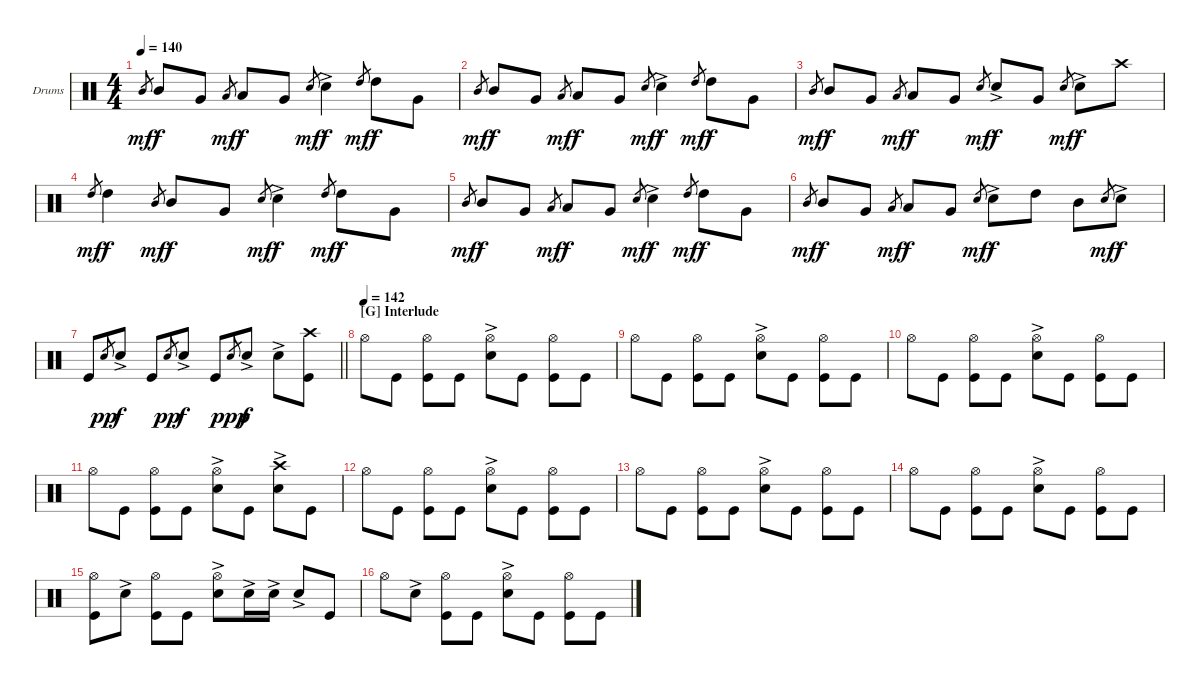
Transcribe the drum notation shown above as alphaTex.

\bracketExtendMode groupsimilarinstruments
\firstSystemTrackNameOrientation horizontal
\otherSystemsTrackNameOrientation horizontal
\track ("Drumkit" "Drums") {instrument percussion}
\staff {score}
\articulation defaults
\ts (4 4)
\tempo 140
\clef neutral
\ks c "Mid Tom (hit)".8{gr dy mf} "Mid Tom (hit)".8{dy f} "Very Low Tom (hit)".8 "Low Tom (hit)".8{gr dy mf} "Low Tom (hit)".8{dy f} "Very Low Tom (hit)".8 "Snare (hit) 2".8{gr dy mf} "Snare (hit) 2"{ac}.4{dy f} "High Tom (hit)".8{gr dy mf} "High Tom (hit)".8{dy f} "Very Low Tom (hit)".8
|
"Mid Tom (hit)".8{gr dy mf} "Mid Tom (hit)".8{dy f} "Very Low Tom (hit)".8 "Low Tom (hit)".8{gr dy mf} "Low Tom (hit)".8{dy f} "Very Low Tom (hit)".8 "Snare (hit) 2".8{gr dy mf} "Snare (hit) 2"{ac}.4{dy f} "High Tom (hit)".8{gr dy mf} "High Tom (hit)".8{dy f} "Very Low Tom (hit)".8 |
"Mid Tom (hit)".8{gr dy mf} "Mid Tom (hit)".8{dy f} "Very Low Tom (hit)".8 "Low Tom (hit)".8{gr dy mf} "Low Tom (hit)".8{dy f} "Very Low Tom (hit)".8 "Snare (hit) 2".8{gr dy mf} "Snare (hit) 2"{ac}.8{dy f} "Very Low Tom (hit)".8 "Snare (hit) 2".8{gr dy mf} "Snare (hit) 2"{ac}.8{dy f} "Crash high (hit)".8 |
"High Tom (hit)".8{gr dy mf} "High Tom (hit)".4{dy f} "Mid Tom (hit)".8{gr dy mf} "Mid Tom (hit)".8{dy f} "Very Low Tom (hit)".8 "Snare (hit) 2".8{gr dy mf} "Snare (hit) 2"{ac}.4{dy f} "High Tom (hit)".8{gr dy mf} "High Tom (hit)".8{dy f} "Very Low Tom (hit)".8 |
"Mid Tom (hit)".8{gr dy mf} "Mid Tom (hit)".8{dy f} "Very Low Tom (hit)".8 "Low Tom (hit)".8{gr dy mf} "Low Tom (hit)".8{dy f} "Very Low Tom (hit)".8 "Snare (hit) 2".8{gr dy mf} "Snare (hit) 2"{ac}.4{dy f} "High Tom (hit)".8{gr dy mf} "High Tom (hit)".8{dy f} "Very Low Tom (hit)".8 |
"Mid Tom (hit)".8{gr dy mf} "Mid Tom (hit)".8{dy f} "Very Low Tom (hit)".8 "Low Tom (hit)".8{gr dy mf} "Low Tom (hit)".8{dy f} "Very Low Tom (hit)".8 "Snare (hit) 2".8{gr dy mf} "Snare (hit) 2"{ac}.8{dy f} "High Tom (hit)".8 "Mid Tom (hit)".8 "Snare (hit) 2".8{gr dy mf} "Snare (hit) 2"{ac}.8{dy f} |
\barLineRight lightlight "Kick (hit)".8 "Snare (hit) 2".8{gr dy pp} "Snare (hit) 2"{ac}.8{dy f} "Kick (hit)".8 "Snare (hit) 2".8{gr dy pp} "Snare (hit) 2"{ac}.8{dy f} "Kick (hit)".8 "Snare (hit) 2".8{gr dy ppp} "Snare (hit) 2"{ac}.8{dy f} "Snare (hit) 2"{ac}.8
("Crash high (hit)" "Kick (hit)").8 |
\section ("G" "Interlude")
\tempo (142)
"Hi-Hat (open)".8 "Kick (hit)".8 ("Hi-Hat (open)" "Kick (hit)").8 "Kick (hit)".8 ("Hi-Hat (open)" "Snare (hit) 2"{ac}).8 "Kick (hit)".8 ("Hi-Hat (open)" "Kick (hit)").8 "Kick (hit)".8 |
"Hi-Hat (open)".8 "Kick (hit)".8 ("Hi-Hat (open)" "Kick (hit)").8 "Kick (hit)".8 ("Hi-Hat (open)" "Snare (hit) 2"{ac}).8 "Kick (hit)".8 ("Hi-Hat (open)" "Kick (hit)").8 "Kick (hit)".8 |
"Hi-Hat (open)".8 "Kick (hit)".8 ("Hi-Hat (open)" "Kick (hit)").8 "Kick (hit)".8 ("Hi-Hat (open)" "Snare (hit) 2"{ac}).8 "Kick (hit)".8 ("Hi-Hat (open)" "Kick (hit)").8 "Kick (hit)".8 |
"Hi-Hat (open)".8 "Kick (hit)".8 ("Hi-Hat (open)" "Kick (hit)").8 "Kick (hit)".8 ("Hi-Hat (open)" "Snare (hit) 2"{ac}).8 "Kick (hit)".8 ("Crash high (hit)" "Snare (hit) 2"{ac}).8 "Kick (hit)".8 |
"Hi-Hat (open)".8 "Kick (hit)".8 ("Hi-Hat (open)" "Kick (hit)").8 "Kick (hit)".8 ("Hi-Hat (open)" "Snare (hit) 2"{ac}).8 "Kick (hit)".8 ("Hi-Hat (open)" "Kick (hit)").8 "Kick (hit)".8 |
"Hi-Hat (open)".8 "Kick (hit)".8 ("Hi-Hat (open)" "Kick (hit)").8 "Kick (hit)".8 ("Hi-Hat (open)" "Snare (hit) 2"{ac}).8 "Kick (hit)".8 ("Hi-Hat (open)" "Kick (hit)").8 "Kick (hit)".8 |
"Hi-Hat (open)".8 "Kick (hit)".8 ("Hi-Hat (open)" "Kick (hit)").8 "Kick (hit)".8 ("Hi-Hat (open)" "Snare (hit) 2"{ac}).8 "Kick (hit)".8 ("Hi-Hat (open)" "Kick (hit)").8 "Kick (hit)".8 |
("Hi-Hat (open)" "Kick (hit)").8 "Snare (hit) 2"{ac}.8 ("Hi-Hat (open)" "Kick (hit)").8 "Kick (hit)".8 ("Hi-Hat (open)" "Snare (hit) 2"{ac}).8 "Snare (hit) 2"{ac}.16 "Snare (hit) 2"{ac}.16 "Snare (hit) 2"{ac}.8 "Kick (hit)".8 |
"Hi-Hat (open)".8 "Snare (hit) 2"{ac}.8 ("Hi-Hat (open)" "Kick (hit)").8 "Kick (hit)".8 ("Hi-Hat (open)" "Snare (hit) 2"{ac}).8 "Kick (hit)".8 ("Hi-Hat (open)" "Kick (hit)").8 "Kick (hit)".8
